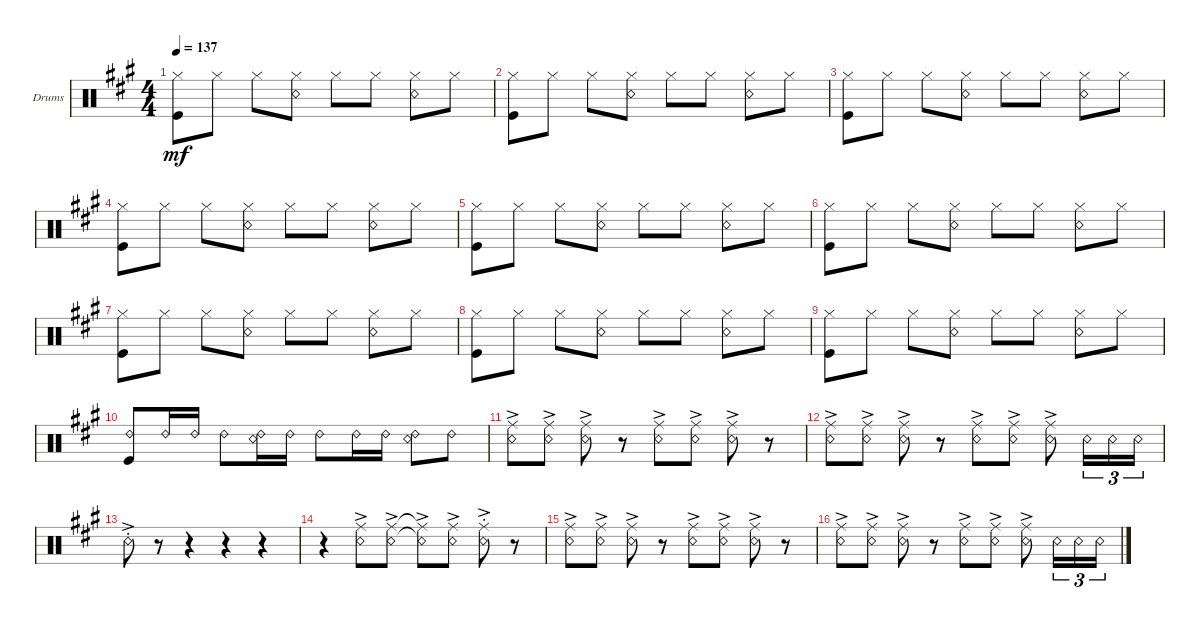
\defaultSystemsLayout 4
\bracketExtendMode groupsimilarinstruments
\firstSystemTrackNameOrientation horizontal
\otherSystemsTrackNameOrientation horizontal
\track ("Drums" "Drums") {instrument percussion}
\staff {score}
\articulation defaults
\ts (4 4)
\tempo 137
\clef neutral
\scale
0.333333
\ks a
("Hi-Hat (closed)" "Kick (hit)").8{dy mf} "Hi-Hat (closed)".8 "Hi-Hat (closed)".8 ("Hi-Hat (closed)" "Snare (rim shot)").8 "Hi-Hat (closed)".8 "Hi-Hat (closed)".8 ("Hi-Hat (closed)" "Snare (rim shot)").8 "Hi-Hat (closed)".8 |
\scale
0.333333 ("Hi-Hat (closed)" "Kick (hit)").8 "Hi-Hat (closed)".8 "Hi-Hat (closed)".8 ("Hi-Hat (closed)" "Snare (rim shot)").8 "Hi-Hat (closed)".8 "Hi-Hat (closed)".8 ("Hi-Hat (closed)" "Snare (rim shot)").8 "Hi-Hat (closed)".8 |
\scale
0.333333 ("Hi-Hat (closed)" "Kick (hit)").8 "Hi-Hat (closed)".8 "Hi-Hat (closed)".8 ("Hi-Hat (closed)" "Snare (rim shot)").8 "Hi-Hat (closed)".8 "Hi-Hat (closed)".8 ("Hi-Hat (closed)" "Snare (rim shot)").8 "Hi-Hat (closed)".8 |
\scale
0.333333 ("Hi-Hat (closed)" "Kick (hit)").8 "Hi-Hat (closed)".8 "Hi-Hat (closed)".8 ("Hi-Hat (closed)" "Snare (rim shot)").8 "Hi-Hat (closed)".8 "Hi-Hat (closed)".8 ("Hi-Hat (closed)" "Snare (rim shot)").8 "Hi-Hat (closed)".8 |
\scale
0.333333 ("Hi-Hat (closed)" "Kick (hit)").8 "Hi-Hat (closed)".8 "Hi-Hat (closed)".8 ("Hi-Hat (closed)" "Snare (rim shot)").8 "Hi-Hat (closed)".8 "Hi-Hat (closed)".8 ("Hi-Hat (closed)" "Snare (rim shot)").8 "Hi-Hat (closed)".8 |
\scale
0.333333 ("Hi-Hat (closed)" "Kick (hit)").8 "Hi-Hat (closed)".8 "Hi-Hat (closed)".8 ("Hi-Hat (closed)" "Snare (rim shot)").8 "Hi-Hat (closed)".8 "Hi-Hat (closed)".8 ("Hi-Hat (closed)" "Snare (rim shot)").8 "Hi-Hat (closed)".8 |
\scale
0.333333 ("Hi-Hat (closed)" "Kick (hit)").8 "Hi-Hat (closed)".8 "Hi-Hat (closed)".8 ("Hi-Hat (closed)" "Snare (rim shot)").8 "Hi-Hat (closed)".8 "Hi-Hat (closed)".8 ("Hi-Hat (closed)" "Snare (rim shot)").8 "Hi-Hat (closed)".8 |
\scale
0.333333 ("Hi-Hat (closed)" "Kick (hit)").8 "Hi-Hat (closed)".8 "Hi-Hat (closed)".8 ("Hi-Hat (closed)" "Snare (rim shot)").8 "Hi-Hat (closed)".8 "Hi-Hat (closed)".8 ("Hi-Hat (closed)" "Snare (rim shot)").8 "Hi-Hat (closed)".8 |
\scale
0.333333 ("Hi-Hat (closed)" "Kick (hit)").8 "Hi-Hat (closed)".8 "Hi-Hat (closed)".8 ("Hi-Hat (closed)" "Snare (rim shot)").8 "Hi-Hat (closed)".8 "Hi-Hat (closed)".8 ("Hi-Hat (closed)" "Snare (rim shot)").8 "Hi-Hat (closed)".8 |
\scale
0.333333 ("Kick (hit)" "Ride (bell) 2").8 "Ride (bell) 2".16 "Ride (bell) 2".16 "Ride (bell) 2".8 ("Snare (rim shot)" "Ride (bell) 2").16 "Ride (bell) 2".16 "Ride (bell) 2".8 "Ride (bell) 2".16 "Ride (bell) 2".16 ("Snare (rim shot)" "Ride (bell) 2").8 "Ride (bell) 2".8 |
\scale
0.333333 ("Snare (rim shot)"{ac} "Ride (middle)"{ac}).8 ("Snare (rim shot)"{ac} "Ride (middle)"{ac}).8 ("Snare (rim shot)"{ac} "Ride (middle)"{ac}).8 r.8 ("Snare (rim shot)"{ac} "Ride (middle)"{ac}).8 ("Snare (rim shot)"{ac} "Ride (middle)"{ac}).8 ("Snare (rim shot)"{ac} "Ride (middle)"{ac}).8 r.8 |
\scale
0.333333 ("Snare (rim shot)"{ac} "Ride (middle)"{ac}).8 ("Snare (rim shot)"{ac} "Ride (middle)"{ac}).8 ("Snare (rim shot)"{ac} "Ride (middle)"{ac}).8 r.8 ("Snare (rim shot)"{ac} "Ride (middle)"{ac}).8 ("Snare (rim shot)"{ac} "Ride (middle)"{ac}).8 ("Snare (rim shot)"{ac} "Ride (middle)"{ac}).8 "Snare (rim shot)".16{tu (3 2)} "Snare (rim shot)".16{tu (3 2)} "Snare (rim shot)".16{tu (3 2)} |
\scale
0.333333 "Snare (rim shot)"{ac st}.8 r.8 r.4 r.4 r.4 |
\scale
0.333333 r.4 ("Snare (rim shot)"{ac} "Ride (middle)"{ac}).8 ("Snare (rim shot)"{ac} "Ride (middle)"{ac}).8 ("Snare (rim shot)"{ac t} "Ride (middle)"{ac t}).8 ("Snare (rim shot)"{ac} "Ride (middle)"{ac}).8 ("Snare (rim shot)"{ac st} "Ride (middle)"{ac}).8 r.8 |
\scale
0.333333 ("Snare (rim shot)"{ac} "Ride (middle)"{ac}).8 ("Snare (rim shot)"{ac} "Ride (middle)"{ac}).8 ("Snare (rim shot)"{ac} "Ride (middle)"{ac}).8 r.8 ("Snare (rim shot)"{ac} "Ride (middle)"{ac}).8 ("Snare (rim shot)"{ac} "Ride (middle)"{ac}).8 ("Snare (rim shot)"{ac} "Ride (middle)"{ac}).8 r.8 |
\scale
0.333333 ("Snare (rim shot)"{ac} "Ride (middle)"{ac}).8 ("Snare (rim shot)"{ac} "Ride (middle)"{ac}).8 ("Snare (rim shot)"{ac} "Ride (middle)"{ac}).8 r.8 ("Snare (rim shot)"{ac} "Ride (middle)"{ac}).8 ("Snare (rim shot)"{ac} "Ride (middle)"{ac}).8 ("Snare (rim shot)"{ac} "Ride (middle)"{ac}).8 "Snare (rim shot)".16{tu (3 2)} "Snare (rim shot)".16{tu (3 2)} "Snare (rim shot)".16{tu (3 2)}
